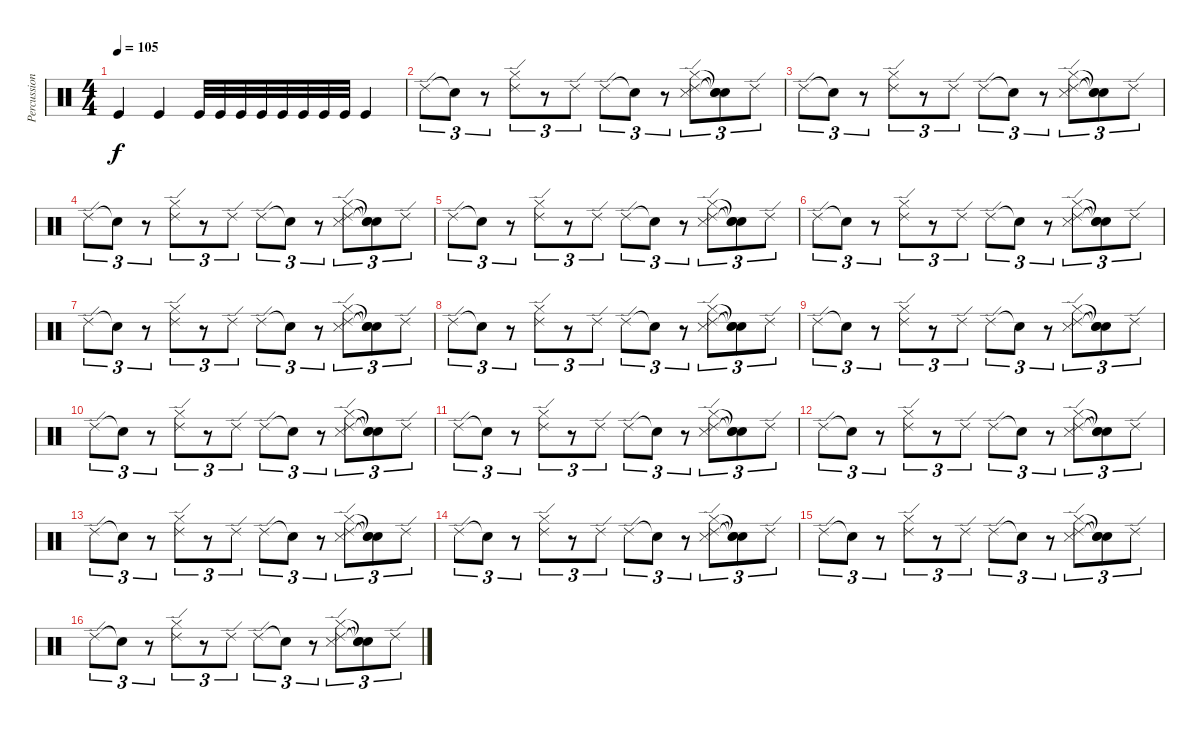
\track ("Percussion" "Percussion") {instrument percussion}
\staff {score}
\articulation defaults
\ts (4 4)
\tempo 105
\clef neutral
\ks c "Kick (hit)".4{dy f} "Kick (hit)".4 "Kick (hit)".32 "Kick (hit)".32 "Kick (hit)".32 "Kick (hit)".32 "Kick (hit)".32 "Kick (hit)".32 "Kick (hit)".32 "Kick (hit)".32 "Kick (hit)".4
|
"Ride (edge) 2".8{tu (3 2)} "Snare (hit)"{t}.8{tu (3 2)} r.8{tu (3 2)} ("Ride (edge) 2" "Hi-Hat (closed)").8{tu (3 2)} r.8{tu (3 2)} "Ride (edge) 2".8{tu (3 2)} "Ride (edge) 2".8{tu (3 2)} "Snare (hit)"{t}.8{tu (3 2)} r.8{tu (3 2)} ("Ride (edge) 2" "Snare (side stick) 3" "Hi-Hat (closed)").8{tu (3 2)} ("Snare (hit)"{t} "Snare (hit)"{t} "Snare (hit)"{t}).8{tu (3 2)} "Ride (edge) 2".8{tu (3 2)} |
"Ride (edge) 2".8{tu (3 2)} "Snare (hit)"{t}.8{tu (3 2)} r.8{tu (3 2)} ("Ride (edge) 2" "Hi-Hat (closed)").8{tu (3 2)} r.8{tu (3 2)} "Ride (edge) 2".8{tu (3 2)} "Ride (edge) 2".8{tu (3 2)} "Snare (hit)"{t}.8{tu (3 2)} r.8{tu (3 2)} ("Ride (edge) 2" "Snare (side stick) 3" "Hi-Hat (closed)").8{tu (3 2)} ("Snare (hit)"{t} "Snare (hit)"{t} "Snare (hit)"{t}).8{tu (3 2)} "Ride (edge) 2".8{tu (3 2)} |
"Ride (edge) 2".8{tu (3 2)} "Snare (hit)"{t}.8{tu (3 2)} r.8{tu (3 2)} ("Ride (edge) 2" "Hi-Hat (closed)").8{tu (3 2)} r.8{tu (3 2)} "Ride (edge) 2".8{tu (3 2)} "Ride (edge) 2".8{tu (3 2)} "Snare (hit)"{t}.8{tu (3 2)} r.8{tu (3 2)} ("Ride (edge) 2" "Snare (side stick) 3" "Hi-Hat (closed)").8{tu (3 2)} ("Snare (hit)"{t} "Snare (hit)"{t} "Snare (hit)"{t}).8{tu (3 2)} "Ride (edge) 2".8{tu (3 2)} |
"Ride (edge) 2".8{tu (3 2)} "Snare (hit)"{t}.8{tu (3 2)} r.8{tu (3 2)} ("Ride (edge) 2" "Hi-Hat (closed)").8{tu (3 2)} r.8{tu (3 2)} "Ride (edge) 2".8{tu (3 2)} "Ride (edge) 2".8{tu (3 2)} "Snare (hit)"{t}.8{tu (3 2)} r.8{tu (3 2)} ("Ride (edge) 2" "Snare (side stick) 3" "Hi-Hat (closed)").8{tu (3 2)} ("Snare (hit)"{t} "Snare (hit)"{t} "Snare (hit)"{t}).8{tu (3 2)} "Ride (edge) 2".8{tu (3 2)} |
"Ride (edge) 2".8{tu (3 2)} "Snare (hit)"{t}.8{tu (3 2)} r.8{tu (3 2)} ("Ride (edge) 2" "Hi-Hat (closed)").8{tu (3 2)} r.8{tu (3 2)} "Ride (edge) 2".8{tu (3 2)} "Ride (edge) 2".8{tu (3 2)} "Snare (hit)"{t}.8{tu (3 2)} r.8{tu (3 2)} ("Ride (edge) 2" "Snare (side stick) 3" "Hi-Hat (closed)").8{tu (3 2)} ("Snare (hit)"{t} "Snare (hit)"{t} "Snare (hit)"{t}).8{tu (3 2)} "Ride (edge) 2".8{tu (3 2)} |
"Ride (edge) 2".8{tu (3 2)} "Snare (hit)"{t}.8{tu (3 2)} r.8{tu (3 2)} ("Ride (edge) 2" "Hi-Hat (closed)").8{tu (3 2)} r.8{tu (3 2)} "Ride (edge) 2".8{tu (3 2)} "Ride (edge) 2".8{tu (3 2)} "Snare (hit)"{t}.8{tu (3 2)} r.8{tu (3 2)} ("Ride (edge) 2" "Snare (side stick) 3" "Hi-Hat (closed)").8{tu (3 2)} ("Snare (hit)"{t} "Snare (hit)"{t} "Snare (hit)"{t}).8{tu (3 2)} "Ride (edge) 2".8{tu (3 2)} |
"Ride (edge) 2".8{tu (3 2)} "Snare (hit)"{t}.8{tu (3 2)} r.8{tu (3 2)} ("Ride (edge) 2" "Hi-Hat (closed)").8{tu (3 2)} r.8{tu (3 2)} "Ride (edge) 2".8{tu (3 2)} "Ride (edge) 2".8{tu (3 2)} "Snare (hit)"{t}.8{tu (3 2)} r.8{tu (3 2)} ("Ride (edge) 2" "Snare (side stick) 3" "Hi-Hat (closed)").8{tu (3 2)} ("Snare (hit)"{t} "Snare (hit)"{t} "Snare (hit)"{t}).8{tu (3 2)} "Ride (edge) 2".8{tu (3 2)} |
"Ride (edge) 2".8{tu (3 2)} "Snare (hit)"{t}.8{tu (3 2)} r.8{tu (3 2)} ("Ride (edge) 2" "Hi-Hat (closed)").8{tu (3 2)} r.8{tu (3 2)} "Ride (edge) 2".8{tu (3 2)} "Ride (edge) 2".8{tu (3 2)} "Snare (hit)"{t}.8{tu (3 2)} r.8{tu (3 2)} ("Ride (edge) 2" "Snare (side stick) 3" "Hi-Hat (closed)").8{tu (3 2)} ("Snare (hit)"{t} "Snare (hit)"{t} "Snare (hit)"{t}).8{tu (3 2)} "Ride (edge) 2".8{tu (3 2)} |
"Ride (edge) 2".8{tu (3 2)} "Snare (hit)"{t}.8{tu (3 2)} r.8{tu (3 2)} ("Ride (edge) 2" "Hi-Hat (closed)").8{tu (3 2)} r.8{tu (3 2)} "Ride (edge) 2".8{tu (3 2)} "Ride (edge) 2".8{tu (3 2)} "Snare (hit)"{t}.8{tu (3 2)} r.8{tu (3 2)} ("Ride (edge) 2" "Snare (side stick) 3" "Hi-Hat (closed)").8{tu (3 2)} ("Snare (hit)"{t} "Snare (hit)"{t} "Snare (hit)"{t}).8{tu (3 2)} "Ride (edge) 2".8{tu (3 2)} |
"Ride (edge) 2".8{tu (3 2)} "Snare (hit)"{t}.8{tu (3 2)} r.8{tu (3 2)} ("Ride (edge) 2" "Hi-Hat (closed)").8{tu (3 2)} r.8{tu (3 2)} "Ride (edge) 2".8{tu (3 2)} "Ride (edge) 2".8{tu (3 2)} "Snare (hit)"{t}.8{tu (3 2)} r.8{tu (3 2)} ("Ride (edge) 2" "Snare (side stick) 3" "Hi-Hat (closed)").8{tu (3 2)} ("Snare (hit)"{t} "Snare (hit)"{t} "Snare (hit)"{t}).8{tu (3 2)} "Ride (edge) 2".8{tu (3 2)} |
"Ride (edge) 2".8{tu (3 2)} "Snare (hit)"{t}.8{tu (3 2)} r.8{tu (3 2)} ("Ride (edge) 2" "Hi-Hat (closed)").8{tu (3 2)} r.8{tu (3 2)} "Ride (edge) 2".8{tu (3 2)} "Ride (edge) 2".8{tu (3 2)} "Snare (hit)"{t}.8{tu (3 2)} r.8{tu (3 2)} ("Ride (edge) 2" "Snare (side stick) 3" "Hi-Hat (closed)").8{tu (3 2)} ("Snare (hit)"{t} "Snare (hit)"{t} "Snare (hit)"{t}).8{tu (3 2)} "Ride (edge) 2".8{tu (3 2)} |
"Ride (edge) 2".8{tu (3 2)} "Snare (hit)"{t}.8{tu (3 2)} r.8{tu (3 2)} ("Ride (edge) 2" "Hi-Hat (closed)").8{tu (3 2)} r.8{tu (3 2)} "Ride (edge) 2".8{tu (3 2)} "Ride (edge) 2".8{tu (3 2)} "Snare (hit)"{t}.8{tu (3 2)} r.8{tu (3 2)} ("Ride (edge) 2" "Snare (side stick) 3" "Hi-Hat (closed)").8{tu (3 2)} ("Snare (hit)"{t} "Snare (hit)"{t} "Snare (hit)"{t}).8{tu (3 2)} "Ride (edge) 2".8{tu (3 2)} |
"Ride (edge) 2".8{tu (3 2)} "Snare (hit)"{t}.8{tu (3 2)} r.8{tu (3 2)} ("Ride (edge) 2" "Hi-Hat (closed)").8{tu (3 2)} r.8{tu (3 2)} "Ride (edge) 2".8{tu (3 2)} "Ride (edge) 2".8{tu (3 2)} "Snare (hit)"{t}.8{tu (3 2)} r.8{tu (3 2)} ("Ride (edge) 2" "Snare (side stick) 3" "Hi-Hat (closed)").8{tu (3 2)} ("Snare (hit)"{t} "Snare (hit)"{t} "Snare (hit)"{t}).8{tu (3 2)} "Ride (edge) 2".8{tu (3 2)} |
"Ride (edge) 2".8{tu (3 2)} "Snare (hit)"{t}.8{tu (3 2)} r.8{tu (3 2)} ("Ride (edge) 2" "Hi-Hat (closed)").8{tu (3 2)} r.8{tu (3 2)} "Ride (edge) 2".8{tu (3 2)} "Ride (edge) 2".8{tu (3 2)} "Snare (hit)"{t}.8{tu (3 2)} r.8{tu (3 2)} ("Ride (edge) 2" "Snare (side stick) 3" "Hi-Hat (closed)").8{tu (3 2)} ("Snare (hit)"{t} "Snare (hit)"{t} "Snare (hit)"{t}).8{tu (3 2)} "Ride (edge) 2".8{tu (3 2)} |
"Ride (edge) 2".8{tu (3 2)} "Snare (hit)"{t}.8{tu (3 2)} r.8{tu (3 2)} ("Ride (edge) 2" "Hi-Hat (closed)").8{tu (3 2)} r.8{tu (3 2)} "Ride (edge) 2".8{tu (3 2)} "Ride (edge) 2".8{tu (3 2)} "Snare (hit)"{t}.8{tu (3 2)} r.8{tu (3 2)} ("Ride (edge) 2" "Snare (side stick) 3" "Hi-Hat (closed)").8{tu (3 2)} ("Snare (hit)"{t} "Snare (hit)"{t} "Snare (hit)"{t}).8{tu (3 2)} "Ride (edge) 2".8{tu (3 2)}
